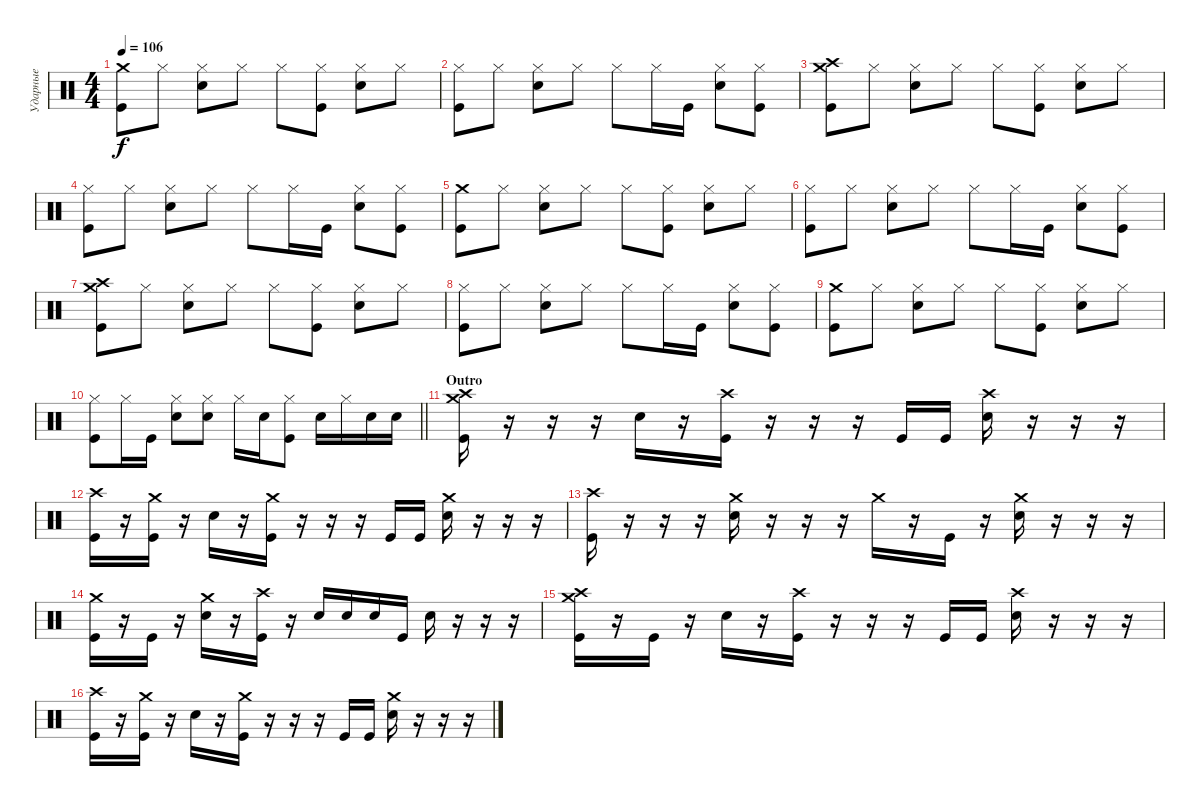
\track ("Ударные" "Ударные") {instrument percussion}
\staff {score}
\articulation defaults
\ts (4 4)
\tempo 106
\clef neutral
\ks c
("Crash medium (hit)" "Kick (hit)").8{dy f} "Hi-Hat (closed)".8 ("Hi-Hat (closed)" "Snare (hit) 2").8 "Hi-Hat (closed)".8 "Hi-Hat (closed)".8 ("Hi-Hat (closed)" "Kick (hit)").8 ("Hi-Hat (closed)" "Snare (hit) 2").8 "Hi-Hat (closed)".8 |
("Hi-Hat (closed)" "Kick (hit)").8 "Hi-Hat (closed)".8 ("Hi-Hat (closed)" "Snare (hit) 2").8 "Hi-Hat (closed)".8 "Hi-Hat (closed)".8 "Hi-Hat (closed)".16 "Kick (hit)".16 ("Hi-Hat (closed)" "Snare (hit) 2").8 ("Hi-Hat (closed)" "Kick (hit)").8 |
("Crash high (hit)" "Crash medium (hit)" "Kick (hit)").8 "Hi-Hat (closed)".8 ("Hi-Hat (closed)" "Snare (hit) 2").8 "Hi-Hat (closed)".8 "Hi-Hat (closed)".8 ("Hi-Hat (closed)" "Kick (hit)").8 ("Hi-Hat (closed)" "Snare (hit) 2").8 "Hi-Hat (closed)".8 |
("Hi-Hat (closed)" "Kick (hit)").8 "Hi-Hat (closed)".8 ("Hi-Hat (closed)" "Snare (hit) 2").8 "Hi-Hat (closed)".8 "Hi-Hat (closed)".8 "Hi-Hat (closed)".16 "Kick (hit)".16 ("Hi-Hat (closed)" "Snare (hit) 2").8 ("Hi-Hat (closed)" "Kick (hit)").8 |
("Crash medium (hit)" "Kick (hit)").8 "Hi-Hat (closed)".8 ("Hi-Hat (closed)" "Snare (hit) 2").8 "Hi-Hat (closed)".8 "Hi-Hat (closed)".8 ("Hi-Hat (closed)" "Kick (hit)").8 ("Hi-Hat (closed)" "Snare (hit) 2").8 "Hi-Hat (closed)".8 |
("Hi-Hat (closed)" "Kick (hit)").8 "Hi-Hat (closed)".8 ("Hi-Hat (closed)" "Snare (hit) 2").8 "Hi-Hat (closed)".8 "Hi-Hat (closed)".8 "Hi-Hat (closed)".16 "Kick (hit)".16 ("Hi-Hat (closed)" "Snare (hit) 2").8 ("Hi-Hat (closed)" "Kick (hit)").8 |
("Crash high (hit)" "Crash medium (hit)" "Kick (hit)").8 "Hi-Hat (closed)".8 ("Hi-Hat (closed)" "Snare (hit) 2").8 "Hi-Hat (closed)".8 "Hi-Hat (closed)".8 ("Hi-Hat (closed)" "Kick (hit)").8 ("Hi-Hat (closed)" "Snare (hit) 2").8 "Hi-Hat (closed)".8 |
("Hi-Hat (closed)" "Kick (hit)").8 "Hi-Hat (closed)".8 ("Hi-Hat (closed)" "Snare (hit) 2").8 "Hi-Hat (closed)".8 "Hi-Hat (closed)".8 "Hi-Hat (closed)".16 "Kick (hit)".16 ("Hi-Hat (closed)" "Snare (hit) 2").8 ("Hi-Hat (closed)" "Kick (hit)").8 |
("Crash medium (hit)" "Kick (hit)").8 "Hi-Hat (closed)".8 ("Hi-Hat (closed)" "Snare (hit) 2").8 "Hi-Hat (closed)".8 "Hi-Hat (closed)".8 ("Hi-Hat (closed)" "Kick (hit)").8 ("Hi-Hat (closed)" "Snare (hit) 2").8 "Hi-Hat (closed)".8 |
\barLineRight lightlight
("Hi-Hat (closed)" "Kick (hit)").8 "Hi-Hat (closed)".16 "Kick (hit)".16 ("Hi-Hat (closed)" "Snare (hit) 2").8 ("Hi-Hat (closed)" "Snare (hit) 2").8 "Hi-Hat (closed)".16 "Snare (hit) 2".16 ("Hi-Hat (closed)" "Kick (hit)").8 "Snare (hit) 2".16 "Hi-Hat (closed)".16 "Snare (hit) 2".16 "Snare (hit) 2".16 |
\section ("" "Outro")
("Crash medium (hit)" "Crash high (hit)" "Kick (hit)").16 r.16 r.16 r.16 "Snare (hit) 2".16 r.16 ("Crash high (hit)" "Kick (hit)").16 r.16 r.16 r.16 "Kick (hit)".16 "Kick (hit)".16 ("Crash high (hit)" "Snare (hit) 2").16 r.16 r.16 r.16 |
("Crash high (hit)" "Kick (hit)").16 r.16 ("Crash medium (hit)" "Kick (hit)").16 r.16 "Snare (hit) 2".16 r.16 ("Crash medium (hit)" "Kick (hit)").16 r.16 r.16 r.16 "Kick (hit)".16 "Kick (hit)".16 ("Crash medium (hit)" "Snare (hit) 2").16 r.16 r.16 r.16 |
("Crash high (hit)" "Kick (hit)").16 r.16 r.16 r.16 ("Crash medium (hit)" "Snare (hit) 2").16 r.16 r.16 r.16 "Crash medium (hit)".16 r.16 "Kick (hit)".16 r.16 ("Crash medium (hit)" "Snare (hit) 2").16 r.16 r.16 r.16 |
("Crash medium (hit)" "Kick (hit)").16 r.16 "Kick (hit)".16 r.16 ("Crash medium (hit)" "Snare (hit) 2").16 r.16 ("Crash high (hit)" "Kick (hit)").16 r.16 "Snare (hit) 2".16 "Snare (hit) 2".16 "Snare (hit) 2".16 "Kick (hit)".16 "Snare (hit) 2".16 r.16 r.16 r.16 |
("Crash medium (hit)" "Crash high (hit)" "Kick (hit)").16 r.16 "Kick (hit)".16 r.16 "Snare (hit) 2".16 r.16 ("Crash high (hit)" "Kick (hit)").16 r.16 r.16 r.16 "Kick (hit)".16 "Kick (hit)".16 ("Crash high (hit)" "Snare (hit) 2").16 r.16 r.16 r.16 |
("Crash high (hit)" "Kick (hit)").16 r.16 ("Crash medium (hit)" "Kick (hit)").16 r.16 "Snare (hit) 2".16 r.16 ("Crash medium (hit)" "Kick (hit)").16 r.16 r.16 r.16 "Kick (hit)".16 "Kick (hit)".16 ("Crash medium (hit)" "Snare (hit) 2").16 r.16 r.16 r.16
